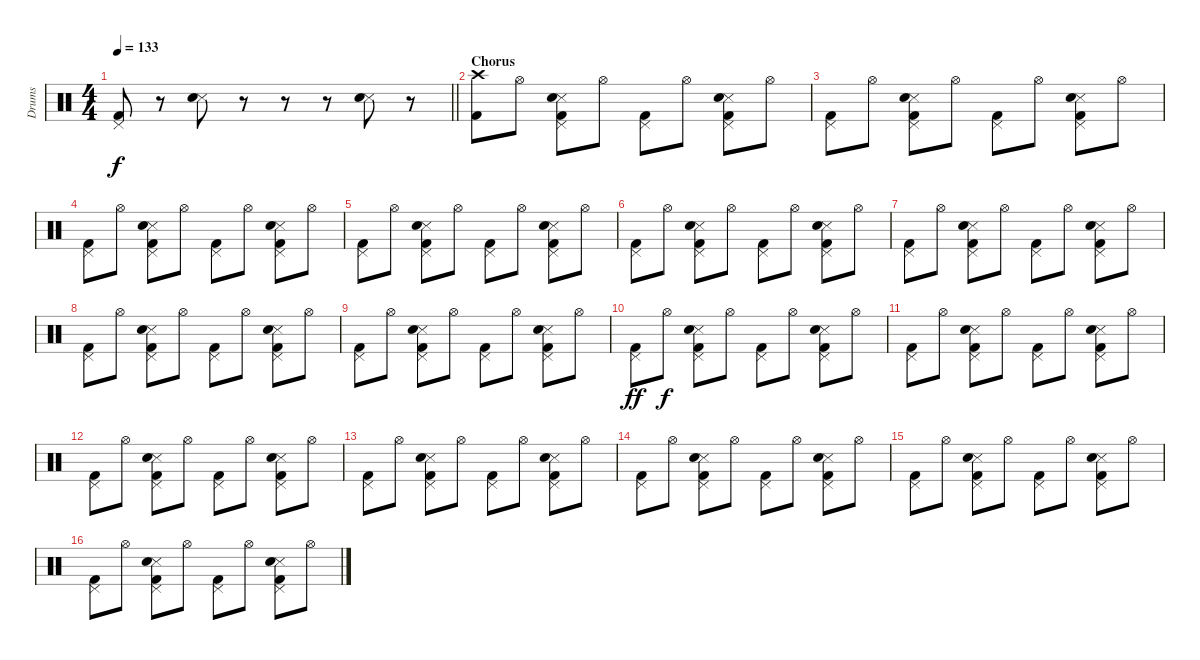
\track ("Drums" "Drums") {instrument percussion}
\staff {score}
\articulation defaults
\ts (4 4)
\tempo 133
\clef neutral
\barLineRight lightlight
\ks c
("Pedal Hi-Hat (hit)" "Kick (hit) 2").8{dy f} r.8 ("Snare (side stick) 3" "Hand Clap (hit)").8 r.8 r.8 r.8 ("Snare (side stick) 3" "Hand Clap (hit)").8 r.8 |
\section ("" "Chorus")
("Crash high (hit)" "Kick (hit) 2").8 "Hi-Hat (open)".8 ("Snare (side stick) 3" "Hand Clap (hit)" "Pedal Hi-Hat (hit)" "Kick (hit) 2").8 "Hi-Hat (open)".8 ("Pedal Hi-Hat (hit)" "Kick (hit) 2").8 "Hi-Hat (open)".8 ("Snare (side stick) 3" "Hand Clap (hit)" "Pedal Hi-Hat (hit)" "Kick (hit) 2").8 "Hi-Hat (open)".8 |
("Pedal Hi-Hat (hit)" "Kick (hit) 2").8 "Hi-Hat (open)".8 ("Snare (side stick) 3" "Hand Clap (hit)" "Pedal Hi-Hat (hit)" "Kick (hit) 2").8 "Hi-Hat (open)".8 ("Pedal Hi-Hat (hit)" "Kick (hit) 2").8 "Hi-Hat (open)".8 ("Snare (side stick) 3" "Hand Clap (hit)" "Pedal Hi-Hat (hit)" "Kick (hit) 2").8 "Hi-Hat (open)".8 |
("Pedal Hi-Hat (hit)" "Kick (hit) 2").8 "Hi-Hat (open)".8 ("Snare (side stick) 3" "Hand Clap (hit)" "Pedal Hi-Hat (hit)" "Kick (hit) 2").8 "Hi-Hat (open)".8 ("Pedal Hi-Hat (hit)" "Kick (hit) 2").8 "Hi-Hat (open)".8 ("Snare (side stick) 3" "Hand Clap (hit)" "Pedal Hi-Hat (hit)" "Kick (hit) 2").8 "Hi-Hat (open)".8 |
("Pedal Hi-Hat (hit)" "Kick (hit) 2").8 "Hi-Hat (open)".8 ("Snare (side stick) 3" "Hand Clap (hit)" "Pedal Hi-Hat (hit)" "Kick (hit) 2").8 "Hi-Hat (open)".8 ("Pedal Hi-Hat (hit)" "Kick (hit) 2").8 "Hi-Hat (open)".8 ("Snare (side stick) 3" "Hand Clap (hit)" "Pedal Hi-Hat (hit)" "Kick (hit) 2").8 "Hi-Hat (open)".8 |
("Pedal Hi-Hat (hit)" "Kick (hit) 2").8 "Hi-Hat (open)".8 ("Snare (side stick) 3" "Hand Clap (hit)" "Pedal Hi-Hat (hit)" "Kick (hit) 2").8 "Hi-Hat (open)".8 ("Pedal Hi-Hat (hit)" "Kick (hit) 2").8 "Hi-Hat (open)".8 ("Snare (side stick) 3" "Hand Clap (hit)" "Pedal Hi-Hat (hit)" "Kick (hit) 2").8 "Hi-Hat (open)".8 |
("Pedal Hi-Hat (hit)" "Kick (hit) 2").8 "Hi-Hat (open)".8 ("Snare (side stick) 3" "Hand Clap (hit)" "Pedal Hi-Hat (hit)" "Kick (hit) 2").8 "Hi-Hat (open)".8 ("Pedal Hi-Hat (hit)" "Kick (hit) 2").8 "Hi-Hat (open)".8 ("Snare (side stick) 3" "Hand Clap (hit)" "Pedal Hi-Hat (hit)" "Kick (hit) 2").8 "Hi-Hat (open)".8 |
("Pedal Hi-Hat (hit)" "Kick (hit) 2").8 "Hi-Hat (open)".8 ("Snare (side stick) 3" "Hand Clap (hit)" "Pedal Hi-Hat (hit)" "Kick (hit) 2").8 "Hi-Hat (open)".8 ("Pedal Hi-Hat (hit)" "Kick (hit) 2").8 "Hi-Hat (open)".8 ("Snare (side stick) 3" "Hand Clap (hit)" "Pedal Hi-Hat (hit)" "Kick (hit) 2").8 "Hi-Hat (open)".8 |
("Pedal Hi-Hat (hit)" "Kick (hit) 2").8 "Hi-Hat (open)".8 ("Snare (side stick) 3" "Hand Clap (hit)" "Pedal Hi-Hat (hit)" "Kick (hit) 2").8 "Hi-Hat (open)".8 ("Pedal Hi-Hat (hit)" "Kick (hit) 2").8 "Hi-Hat (open)".8 ("Snare (side stick) 3" "Hand Clap (hit)" "Pedal Hi-Hat (hit)" "Kick (hit) 2").8 "Hi-Hat (open)".8 |
("Pedal Hi-Hat (hit)" "Kick (hit) 2").8{dy ff} "Hi-Hat (open)".8{dy f} ("Snare (side stick) 3" "Hand Clap (hit)" "Pedal Hi-Hat (hit)" "Kick (hit) 2").8 "Hi-Hat (open)".8 ("Pedal Hi-Hat (hit)" "Kick (hit) 2").8 "Hi-Hat (open)".8 ("Snare (side stick) 3" "Hand Clap (hit)" "Pedal Hi-Hat (hit)" "Kick (hit) 2").8 "Hi-Hat (open)".8 |
("Pedal Hi-Hat (hit)" "Kick (hit) 2").8 "Hi-Hat (open)".8 ("Snare (side stick) 3" "Hand Clap (hit)" "Pedal Hi-Hat (hit)" "Kick (hit) 2").8 "Hi-Hat (open)".8 ("Pedal Hi-Hat (hit)" "Kick (hit) 2").8 "Hi-Hat (open)".8 ("Snare (side stick) 3" "Hand Clap (hit)" "Pedal Hi-Hat (hit)" "Kick (hit) 2").8 "Hi-Hat (open)".8 |
("Pedal Hi-Hat (hit)" "Kick (hit) 2").8 "Hi-Hat (open)".8 ("Snare (side stick) 3" "Hand Clap (hit)" "Pedal Hi-Hat (hit)" "Kick (hit) 2").8 "Hi-Hat (open)".8 ("Pedal Hi-Hat (hit)" "Kick (hit) 2").8 "Hi-Hat (open)".8 ("Snare (side stick) 3" "Hand Clap (hit)" "Pedal Hi-Hat (hit)" "Kick (hit) 2").8 "Hi-Hat (open)".8 |
("Pedal Hi-Hat (hit)" "Kick (hit) 2").8 "Hi-Hat (open)".8 ("Snare (side stick) 3" "Hand Clap (hit)" "Pedal Hi-Hat (hit)" "Kick (hit) 2").8 "Hi-Hat (open)".8 ("Pedal Hi-Hat (hit)" "Kick (hit) 2").8 "Hi-Hat (open)".8 ("Snare (side stick) 3" "Hand Clap (hit)" "Pedal Hi-Hat (hit)" "Kick (hit) 2").8 "Hi-Hat (open)".8 |
("Pedal Hi-Hat (hit)" "Kick (hit) 2").8 "Hi-Hat (open)".8 ("Snare (side stick) 3" "Hand Clap (hit)" "Pedal Hi-Hat (hit)" "Kick (hit) 2").8 "Hi-Hat (open)".8 ("Pedal Hi-Hat (hit)" "Kick (hit) 2").8 "Hi-Hat (open)".8 ("Snare (side stick) 3" "Hand Clap (hit)" "Pedal Hi-Hat (hit)" "Kick (hit) 2").8 "Hi-Hat (open)".8 |
("Pedal Hi-Hat (hit)" "Kick (hit) 2").8 "Hi-Hat (open)".8 ("Snare (side stick) 3" "Hand Clap (hit)" "Pedal Hi-Hat (hit)" "Kick (hit) 2").8 "Hi-Hat (open)".8 ("Pedal Hi-Hat (hit)" "Kick (hit) 2").8 "Hi-Hat (open)".8 ("Snare (side stick) 3" "Hand Clap (hit)" "Pedal Hi-Hat (hit)" "Kick (hit) 2").8 "Hi-Hat (open)".8 |
("Pedal Hi-Hat (hit)" "Kick (hit) 2").8 "Hi-Hat (open)".8 ("Snare (side stick) 3" "Hand Clap (hit)" "Pedal Hi-Hat (hit)" "Kick (hit) 2").8 "Hi-Hat (open)".8 ("Pedal Hi-Hat (hit)" "Kick (hit) 2").8 "Hi-Hat (open)".8 ("Snare (side stick) 3" "Hand Clap (hit)" "Pedal Hi-Hat (hit)" "Kick (hit) 2").8 "Hi-Hat (open)".8
